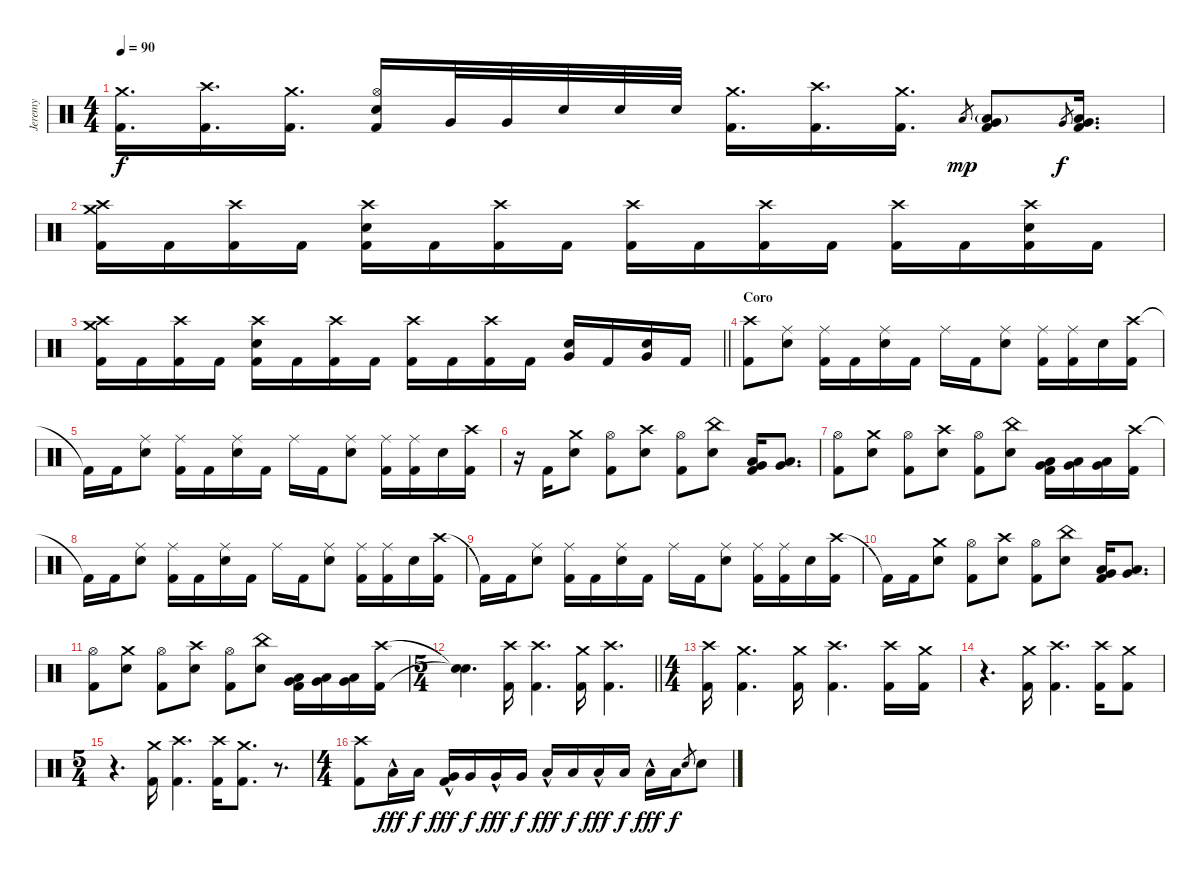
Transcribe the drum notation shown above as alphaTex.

\track ("Jeremy" "Jeremy") {instrument percussion}
\staff {score}
\articulation defaults
\ts (4 4)
\tempo 90
\clef neutral
\ks c
("Crash medium (hit)" "Kick (hit) 2").16{d dy f} ("Crash high (hit)" "Kick (hit) 2").16{d} ("Crash medium (hit)" "Kick (hit) 2").16{d} ("Hi-Hat (open)" "Snare (hit) 2" "Kick (hit) 2").16 "Very Low Tom (hit)".32 "Very Low Tom (hit)".32 "Snare (hit) 2".32 "Snare (hit) 2".32 "Snare (hit) 2".32 ("Crash medium (hit)" "Kick (hit) 2").16{d} ("Crash high (hit)" "Kick (hit) 2").16{d} ("Crash medium (hit)" "Kick (hit) 2").16{d} "Low Tom (hit)".8{gr dy mp} ("Low Tom (hit)"{g} "Very Low Tom (hit)" "Kick (hit) 2").8 "Very Low Tom (hit)".8{gr dy f} ("Very Low Tom (hit)" "Low Floor Tom (hit)" "Kick (hit) 2").16{d} |
("Crash high (hit)" "Crash medium (hit)" "Kick (hit) 2").16 "Kick (hit) 2".16 ("Crash high (hit)" "Kick (hit) 2").16 "Kick (hit) 2".16 ("Crash high (hit)" "Snare (hit) 2" "Kick (hit) 2").16 "Kick (hit) 2".16 ("Crash high (hit)" "Kick (hit) 2").16 "Kick (hit) 2".16 ("Crash high (hit)" "Kick (hit) 2").16 "Kick (hit) 2".16 ("Crash high (hit)" "Kick (hit) 2").16 "Kick (hit) 2".16 ("Crash high (hit)" "Kick (hit) 2").16 "Kick (hit) 2".16 ("Crash high (hit)" "Snare (hit) 2" "Kick (hit) 2").16 "Kick (hit) 2".16 |
\barLineRight lightlight
("Crash high (hit)" "Crash medium (hit)" "Kick (hit) 2").16 "Kick (hit) 2".16 ("Crash high (hit)" "Kick (hit) 2").16 "Kick (hit) 2".16 ("Crash high (hit)" "Snare (hit) 2" "Kick (hit) 2").16 "Kick (hit) 2".16 ("Crash high (hit)" "Kick (hit) 2").16 "Kick (hit) 2".16 ("Crash high (hit)" "Kick (hit) 2").16 "Kick (hit) 2".16 ("Crash high (hit)" "Kick (hit) 2").16 "Kick (hit) 2".16 ("Snare (hit) 2" "Very Low Tom (hit)").16 "Kick (hit) 2".16 ("Snare (hit) 2" "Very Low Tom (hit)").16 "Kick (hit) 2".16 |
\section ("" "Coro")
("Crash high (hit)" "Kick (hit) 2").8 ("Ride (middle)" "Snare (hit) 2").8 ("Ride (middle)" "Kick (hit) 2").16 "Kick (hit) 2".16 ("Ride (middle)" "Snare (hit) 2").16 "Kick (hit) 2".16 "Ride (middle)".16 "Kick (hit) 2".16 ("Ride (middle)" "Snare (hit) 2").8 ("Ride (middle)" "Kick (hit) 2").16 ("Ride (middle)" "Kick (hit) 2").16 "Snare (hit) 2".16 ("Crash high (hit)" "Kick (hit) 2").16 |
"Kick (hit) 2"{t}.16 "Kick (hit) 2".16 ("Ride (middle)" "Snare (hit) 2").8 ("Ride (middle)" "Kick (hit) 2").16 "Kick (hit) 2".16 ("Ride (middle)" "Snare (hit) 2").16 "Kick (hit) 2".16 "Ride (middle)".16 "Kick (hit) 2".16 ("Ride (middle)" "Snare (hit) 2").8 ("Ride (middle)" "Kick (hit) 2").16 ("Ride (middle)" "Kick (hit) 2").16 "Snare (hit) 2".16 ("Crash high (hit)" "Kick (hit) 2").16 |
r.16 "Kick (hit) 2".16 ("Crash medium (hit)" "Snare (hit) 2").8 ("Hi-Hat (open)" "Kick (hit) 2").8 ("Crash high (hit)" "Snare (hit) 2").8 ("Hi-Hat (open)" "Kick (hit) 2").8 ("China (hit)" "Snare (hit) 2").8 ("Very Low Tom (hit)" "Low Floor Tom (hit)" "Kick (hit) 2").16 ("Very Low Tom (hit)" "Low Floor Tom (hit)").8{d} |
("Hi-Hat (open)" "Kick (hit) 2").8 ("Crash medium (hit)" "Snare (hit) 2").8 ("Hi-Hat (open)" "Kick (hit) 2").8 ("Crash high (hit)" "Snare (hit) 2").8 ("Hi-Hat (open)" "Kick (hit) 2").8 ("China (hit)" "Snare (hit) 2").8 ("Very Low Tom (hit)" "Low Floor Tom (hit)" "Kick (hit) 2").16 ("Very Low Tom (hit)" "Low Floor Tom (hit)").16 ("Very Low Tom (hit)" "Low Floor Tom (hit)").16 ("Crash high (hit)" "Kick (hit) 2").16 |
"Kick (hit) 2"{t}.16 "Kick (hit) 2".16 ("Ride (middle)" "Snare (hit) 2").8 ("Ride (middle)" "Kick (hit) 2").16 "Kick (hit) 2".16 ("Ride (middle)" "Snare (hit) 2").16 "Kick (hit) 2".16 "Ride (middle)".16 "Kick (hit) 2".16 ("Ride (middle)" "Snare (hit) 2").8 ("Ride (middle)" "Kick (hit) 2").16 ("Ride (middle)" "Kick (hit) 2").16 "Snare (hit) 2".16 ("Crash high (hit)" "Kick (hit) 2").16 |
"Kick (hit) 2"{t}.16 "Kick (hit) 2".16 ("Ride (middle)" "Snare (hit) 2").8 ("Ride (middle)" "Kick (hit) 2").16 "Kick (hit) 2".16 ("Ride (middle)" "Snare (hit) 2").16 "Kick (hit) 2".16 "Ride (middle)".16 "Kick (hit) 2".16 ("Ride (middle)" "Snare (hit) 2").8 ("Ride (middle)" "Kick (hit) 2").16 ("Ride (middle)" "Kick (hit) 2").16 "Snare (hit) 2".16 ("Crash high (hit)" "Kick (hit) 2").16 |
"Kick (hit) 2"{t}.16 "Kick (hit) 2".16 ("Crash medium (hit)" "Snare (hit) 2").8 ("Hi-Hat (open)" "Kick (hit) 2").8 ("Crash high (hit)" "Snare (hit) 2").8 ("Hi-Hat (open)" "Kick (hit) 2").8 ("China (hit)" "Snare (hit) 2").8 ("Very Low Tom (hit)" "Low Floor Tom (hit)" "Kick (hit) 2").16 ("Very Low Tom (hit)" "Low Floor Tom (hit)").8{d} |
("Hi-Hat (open)" "Kick (hit) 2").8 ("Crash medium (hit)" "Snare (hit) 2").8 ("Hi-Hat (open)" "Kick (hit) 2").8 ("Crash high (hit)" "Snare (hit) 2").8 ("Hi-Hat (open)" "Kick (hit) 2").8 ("China (hit)" "Snare (hit) 2").8 ("Very Low Tom (hit)" "Low Floor Tom (hit)" "Kick (hit) 2").16 ("Very Low Tom (hit)" "Low Floor Tom (hit)").16 ("Very Low Tom (hit)" "Low Floor Tom (hit)").16 ("Crash high (hit)" "Kick (hit) 2").16 |
\ts (5 4)
\barLineRight lightlight
("Snare (hit)"{t} "Snare (hit)"{t}).4{d} ("Crash high (hit)" "Kick (hit) 2").16 ("Crash high (hit)" "Kick (hit) 2").4{d} ("Crash medium (hit)" "Kick (hit) 2").16 ("Crash high (hit)" "Kick (hit) 2").4{d} |
\ts (4 4)
("Crash high (hit)" "Kick (hit) 2").16 ("Crash medium (hit)" "Kick (hit) 2").4{d} ("Crash medium (hit)" "Kick (hit) 2").16 ("Crash high (hit)" "Kick (hit) 2").4{d} ("Crash high (hit)" "Kick (hit) 2").16 ("Crash medium (hit)" "Kick (hit) 2").16 |
r.4{d} ("Crash medium (hit)" "Kick (hit) 2").16 ("Crash high (hit)" "Kick (hit) 2").4{d} ("Crash high (hit)" "Kick (hit) 2").16 ("Crash medium (hit)" "Kick (hit) 2").8 |
\ts (5 4)
r.4{d} ("Crash medium (hit)" "Kick (hit) 2").16 ("Crash high (hit)" "Kick (hit) 2").4{d} ("Crash high (hit)" "Kick (hit) 2").16 ("Crash medium (hit)" "Kick (hit) 2").8{d} r.8{d} |
\ts (4 4)
("Crash high (hit)" "Kick (hit) 2").8 "Low Tom (hit)"{hac}.16{dy fff} "Low Tom (hit)".16{dy f} ("Very Low Tom (hit)"{hac} "Kick (hit) 2").16{dy fff} "Very Low Tom (hit)".16{dy f} "Very Low Tom (hit)"{hac}.16{dy fff} "Very Low Tom (hit)".16{dy f} "Low Floor Tom (hit)"{hac}.16{dy fff} "Low Floor Tom (hit)".16{dy f} "Low Floor Tom (hit)"{hac}.16{dy fff} "Low Floor Tom (hit)".16{dy f} "Low Floor Tom (hit)"{hac}.16{dy fff} "Low Floor Tom (hit)".16{dy f} "Snare (hit) 2".8{gr} "Snare (hit) 2".8
